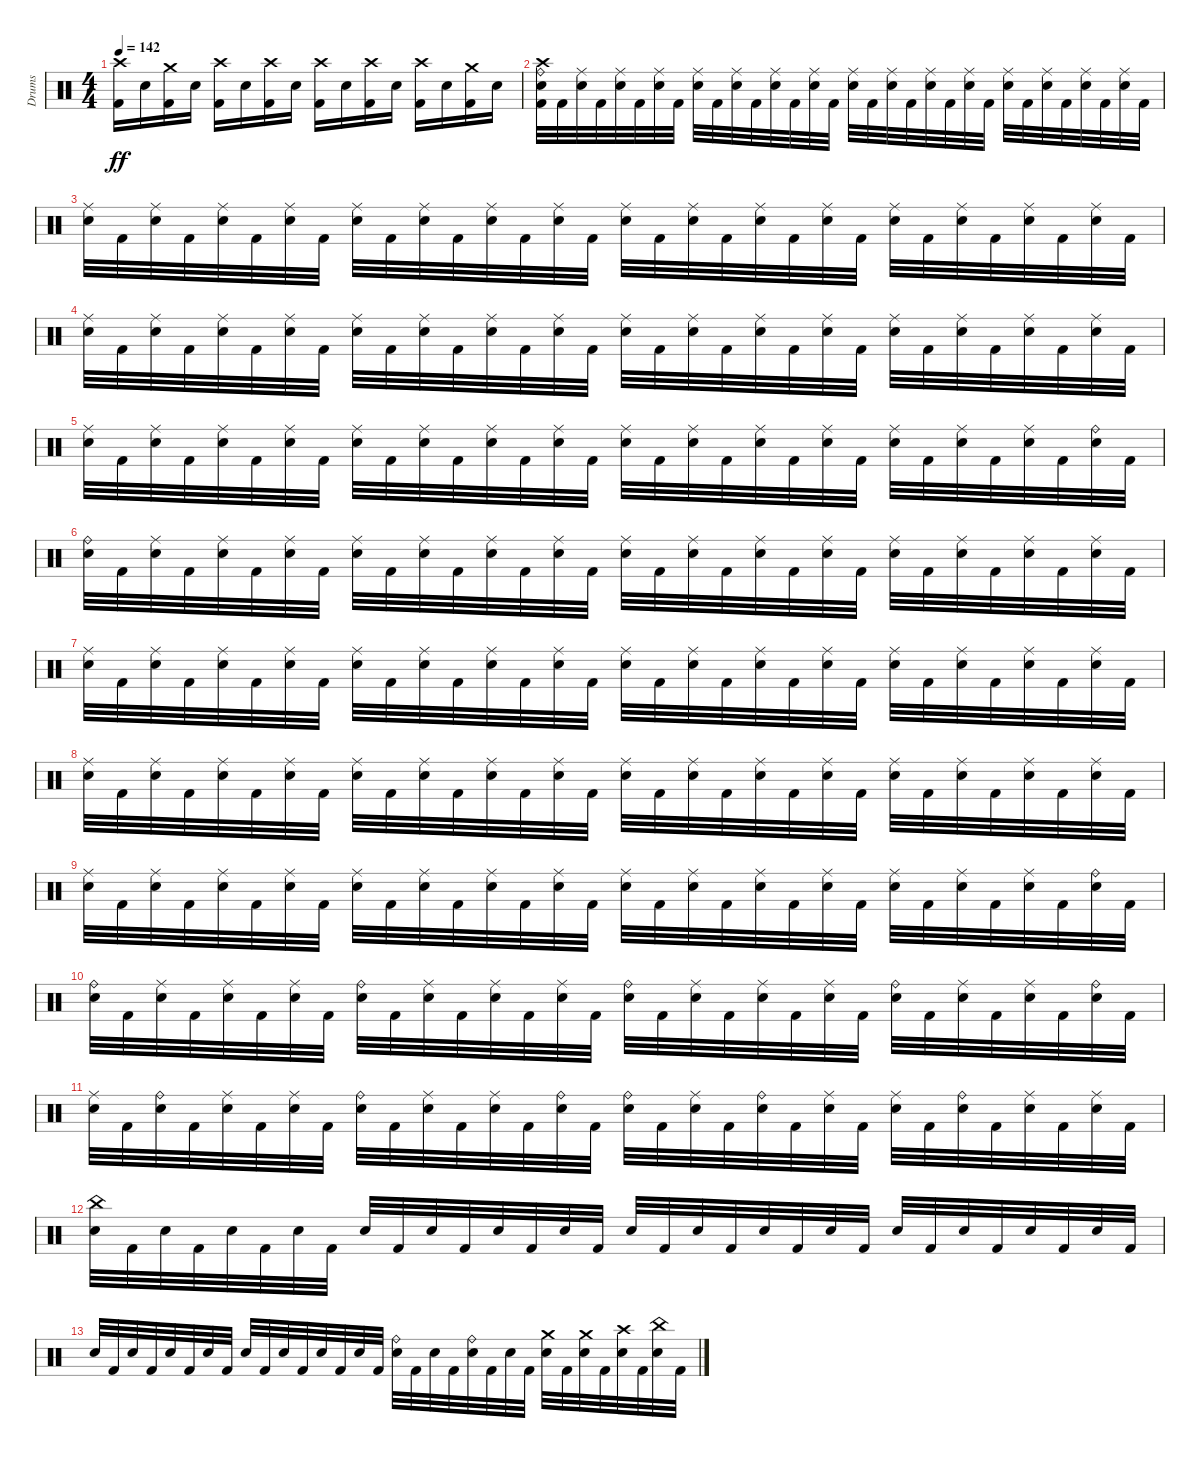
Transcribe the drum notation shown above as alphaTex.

\track ("Drums" "Drums") {instrument percussion}
\staff {score}
\articulation defaults
\ts (4 4)
\tempo 142
\clef neutral
\ks c
("Crash high (hit)" "Kick (hit) 2").16{dy ff} "Snare (hit) 2".16 ("Crash medium (hit)" "Kick (hit) 2").16 "Snare (hit) 2".16 ("Crash high (hit)" "Kick (hit) 2").16 "Snare (hit) 2".16 ("Crash high (hit)" "Kick (hit) 2").16 "Snare (hit) 2".16 ("Crash high (hit)" "Kick (hit) 2").16 "Snare (hit) 2".16 ("Crash high (hit)" "Kick (hit) 2").16 "Snare (hit) 2".16 ("Crash high (hit)" "Kick (hit) 2").16 "Snare (hit) 2".16 ("Crash medium (hit)" "Kick (hit) 2").16 "Snare (hit) 2".16 |
("Crash high (hit)" "Kick (hit) 2" "Snare (hit) 2" "Ride (bell)").32 "Kick (hit) 2".32 ("Snare (hit) 2" "Ride (middle)").32 "Kick (hit) 2".32 ("Snare (hit) 2" "Ride (middle)").32 "Kick (hit) 2".32 ("Snare (hit) 2" "Ride (middle)").32 "Kick (hit) 2".32 ("Snare (hit) 2" "Ride (middle)").32 "Kick (hit) 2".32 ("Snare (hit) 2" "Ride (middle)").32 "Kick (hit) 2".32 ("Snare (hit) 2" "Ride (middle)").32 "Kick (hit) 2".32 ("Snare (hit) 2" "Ride (middle)").32 "Kick (hit) 2".32 ("Snare (hit) 2" "Ride (middle)").32 "Kick (hit) 2".32 ("Snare (hit) 2" "Ride (middle)").32 "Kick (hit) 2".32 ("Snare (hit) 2" "Ride (middle)").32 "Kick (hit) 2".32 ("Snare (hit) 2" "Ride (middle)").32 "Kick (hit) 2".32 ("Snare (hit) 2" "Ride (middle)").32 "Kick (hit) 2".32 ("Snare (hit) 2" "Ride (middle)").32 "Kick (hit) 2".32 ("Snare (hit) 2" "Ride (middle)").32 "Kick (hit) 2".32 ("Snare (hit) 2" "Ride (middle)").32 "Kick (hit) 2".32 |
("Snare (hit) 2" "Ride (middle)").32 "Kick (hit) 2".32 ("Snare (hit) 2" "Ride (middle)").32 "Kick (hit) 2".32 ("Snare (hit) 2" "Ride (middle)").32 "Kick (hit) 2".32 ("Snare (hit) 2" "Ride (middle)").32 "Kick (hit) 2".32 ("Snare (hit) 2" "Ride (middle)").32 "Kick (hit) 2".32 ("Snare (hit) 2" "Ride (middle)").32 "Kick (hit) 2".32 ("Snare (hit) 2" "Ride (middle)").32 "Kick (hit) 2".32 ("Snare (hit) 2" "Ride (middle)").32 "Kick (hit) 2".32 ("Snare (hit) 2" "Ride (middle)").32 "Kick (hit) 2".32 ("Snare (hit) 2" "Ride (middle)").32 "Kick (hit) 2".32 ("Snare (hit) 2" "Ride (middle)").32 "Kick (hit) 2".32 ("Snare (hit) 2" "Ride (middle)").32 "Kick (hit) 2".32 ("Snare (hit) 2" "Ride (middle)").32 "Kick (hit) 2".32 ("Snare (hit) 2" "Ride (middle)").32 "Kick (hit) 2".32 ("Snare (hit) 2" "Ride (middle)").32 "Kick (hit) 2".32 ("Snare (hit) 2" "Ride (middle)").32 "Kick (hit) 2".32 |
("Snare (hit) 2" "Ride (middle)").32 "Kick (hit) 2".32 ("Snare (hit) 2" "Ride (middle)").32 "Kick (hit) 2".32 ("Snare (hit) 2" "Ride (middle)").32 "Kick (hit) 2".32 ("Snare (hit) 2" "Ride (middle)").32 "Kick (hit) 2".32 ("Snare (hit) 2" "Ride (middle)").32 "Kick (hit) 2".32 ("Snare (hit) 2" "Ride (middle)").32 "Kick (hit) 2".32 ("Snare (hit) 2" "Ride (middle)").32 "Kick (hit) 2".32 ("Snare (hit) 2" "Ride (middle)").32 "Kick (hit) 2".32 ("Snare (hit) 2" "Ride (middle)").32 "Kick (hit) 2".32 ("Snare (hit) 2" "Ride (middle)").32 "Kick (hit) 2".32 ("Snare (hit) 2" "Ride (middle)").32 "Kick (hit) 2".32 ("Snare (hit) 2" "Ride (middle)").32 "Kick (hit) 2".32 ("Snare (hit) 2" "Ride (middle)").32 "Kick (hit) 2".32 ("Snare (hit) 2" "Ride (middle)").32 "Kick (hit) 2".32 ("Snare (hit) 2" "Ride (middle)").32 "Kick (hit) 2".32 ("Snare (hit) 2" "Ride (middle)").32 "Kick (hit) 2".32 |
("Snare (hit) 2" "Ride (middle)").32 "Kick (hit) 2".32 ("Snare (hit) 2" "Ride (middle)").32 "Kick (hit) 2".32 ("Snare (hit) 2" "Ride (middle)").32 "Kick (hit) 2".32 ("Snare (hit) 2" "Ride (middle)").32 "Kick (hit) 2".32 ("Snare (hit) 2" "Ride (middle)").32 "Kick (hit) 2".32 ("Snare (hit) 2" "Ride (middle)").32 "Kick (hit) 2".32 ("Snare (hit) 2" "Ride (middle)").32 "Kick (hit) 2".32 ("Snare (hit) 2" "Ride (middle)").32 "Kick (hit) 2".32 ("Snare (hit) 2" "Ride (middle)").32 "Kick (hit) 2".32 ("Snare (hit) 2" "Ride (middle)").32 "Kick (hit) 2".32 ("Snare (hit) 2" "Ride (middle)").32 "Kick (hit) 2".32 ("Snare (hit) 2" "Ride (middle)").32 "Kick (hit) 2".32 ("Snare (hit) 2" "Ride (middle)").32 "Kick (hit) 2".32 ("Snare (hit) 2" "Ride (middle)").32 "Kick (hit) 2".32 ("Snare (hit) 2" "Ride (middle)").32 "Kick (hit) 2".32 ("Snare (hit) 2" "Ride (bell)").32 "Kick (hit) 2".32 |
("Snare (hit) 2" "Ride (bell)").32 "Kick (hit) 2".32 ("Snare (hit) 2" "Ride (middle)").32 "Kick (hit) 2".32 ("Snare (hit) 2" "Ride (middle)").32 "Kick (hit) 2".32 ("Snare (hit) 2" "Ride (middle)").32 "Kick (hit) 2".32 ("Snare (hit) 2" "Ride (middle)").32 "Kick (hit) 2".32 ("Snare (hit) 2" "Ride (middle)").32 "Kick (hit) 2".32 ("Snare (hit) 2" "Ride (middle)").32 "Kick (hit) 2".32 ("Snare (hit) 2" "Ride (middle)").32 "Kick (hit) 2".32 ("Snare (hit) 2" "Ride (middle)").32 "Kick (hit) 2".32 ("Snare (hit) 2" "Ride (middle)").32 "Kick (hit) 2".32 ("Snare (hit) 2" "Ride (middle)").32 "Kick (hit) 2".32 ("Snare (hit) 2" "Ride (middle)").32 "Kick (hit) 2".32 ("Snare (hit) 2" "Ride (middle)").32 "Kick (hit) 2".32 ("Snare (hit) 2" "Ride (middle)").32 "Kick (hit) 2".32 ("Snare (hit) 2" "Ride (middle)").32 "Kick (hit) 2".32 ("Snare (hit) 2" "Ride (middle)").32 "Kick (hit) 2".32 |
("Snare (hit) 2" "Ride (middle)").32 "Kick (hit) 2".32 ("Snare (hit) 2" "Ride (middle)").32 "Kick (hit) 2".32 ("Snare (hit) 2" "Ride (middle)").32 "Kick (hit) 2".32 ("Snare (hit) 2" "Ride (middle)").32 "Kick (hit) 2".32 ("Snare (hit) 2" "Ride (middle)").32 "Kick (hit) 2".32 ("Snare (hit) 2" "Ride (middle)").32 "Kick (hit) 2".32 ("Snare (hit) 2" "Ride (middle)").32 "Kick (hit) 2".32 ("Snare (hit) 2" "Ride (middle)").32 "Kick (hit) 2".32 ("Snare (hit) 2" "Ride (middle)").32 "Kick (hit) 2".32 ("Snare (hit) 2" "Ride (middle)").32 "Kick (hit) 2".32 ("Snare (hit) 2" "Ride (middle)").32 "Kick (hit) 2".32 ("Snare (hit) 2" "Ride (middle)").32 "Kick (hit) 2".32 ("Snare (hit) 2" "Ride (middle)").32 "Kick (hit) 2".32 ("Snare (hit) 2" "Ride (middle)").32 "Kick (hit) 2".32 ("Snare (hit) 2" "Ride (middle)").32 "Kick (hit) 2".32 ("Snare (hit) 2" "Ride (middle)").32 "Kick (hit) 2".32 |
("Snare (hit) 2" "Ride (middle)").32 "Kick (hit) 2".32 ("Snare (hit) 2" "Ride (middle)").32 "Kick (hit) 2".32 ("Snare (hit) 2" "Ride (middle)").32 "Kick (hit) 2".32 ("Snare (hit) 2" "Ride (middle)").32 "Kick (hit) 2".32 ("Snare (hit) 2" "Ride (middle)").32 "Kick (hit) 2".32 ("Snare (hit) 2" "Ride (middle)").32 "Kick (hit) 2".32 ("Snare (hit) 2" "Ride (middle)").32 "Kick (hit) 2".32 ("Snare (hit) 2" "Ride (middle)").32 "Kick (hit) 2".32 ("Snare (hit) 2" "Ride (middle)").32 "Kick (hit) 2".32 ("Snare (hit) 2" "Ride (middle)").32 "Kick (hit) 2".32 ("Snare (hit) 2" "Ride (middle)").32 "Kick (hit) 2".32 ("Snare (hit) 2" "Ride (middle)").32 "Kick (hit) 2".32 ("Snare (hit) 2" "Ride (middle)").32 "Kick (hit) 2".32 ("Snare (hit) 2" "Ride (middle)").32 "Kick (hit) 2".32 ("Snare (hit) 2" "Ride (middle)").32 "Kick (hit) 2".32 ("Snare (hit) 2" "Ride (middle)").32 "Kick (hit) 2".32 |
("Snare (hit) 2" "Ride (middle)").32 "Kick (hit) 2".32 ("Snare (hit) 2" "Ride (middle)").32 "Kick (hit) 2".32 ("Snare (hit) 2" "Ride (middle)").32 "Kick (hit) 2".32 ("Snare (hit) 2" "Ride (middle)").32 "Kick (hit) 2".32 ("Snare (hit) 2" "Ride (middle)").32 "Kick (hit) 2".32 ("Snare (hit) 2" "Ride (middle)").32 "Kick (hit) 2".32 ("Snare (hit) 2" "Ride (middle)").32 "Kick (hit) 2".32 ("Snare (hit) 2" "Ride (middle)").32 "Kick (hit) 2".32 ("Snare (hit) 2" "Ride (middle)").32 "Kick (hit) 2".32 ("Snare (hit) 2" "Ride (middle)").32 "Kick (hit) 2".32 ("Snare (hit) 2" "Ride (middle)").32 "Kick (hit) 2".32 ("Snare (hit) 2" "Ride (middle)").32 "Kick (hit) 2".32 ("Snare (hit) 2" "Ride (middle)").32 "Kick (hit) 2".32 ("Snare (hit) 2" "Ride (middle)").32 "Kick (hit) 2".32 ("Snare (hit) 2" "Ride (middle)").32 "Kick (hit) 2".32 ("Snare (hit) 2" "Ride (bell)").32 "Kick (hit) 2".32 |
("Snare (hit) 2" "Ride (bell)").32 "Kick (hit) 2".32 ("Snare (hit) 2" "Ride (middle)").32 "Kick (hit) 2".32 ("Snare (hit) 2" "Ride (middle)").32 "Kick (hit) 2".32 ("Snare (hit) 2" "Ride (middle)").32 "Kick (hit) 2".32 ("Snare (hit) 2" "Ride (bell)").32 "Kick (hit) 2".32 ("Snare (hit) 2" "Ride (middle)").32 "Kick (hit) 2".32 ("Snare (hit) 2" "Ride (middle)").32 "Kick (hit) 2".32 ("Snare (hit) 2" "Ride (middle)").32 "Kick (hit) 2".32 ("Snare (hit) 2" "Ride (bell)").32 "Kick (hit) 2".32 ("Snare (hit) 2" "Ride (middle)").32 "Kick (hit) 2".32 ("Snare (hit) 2" "Ride (middle)").32 "Kick (hit) 2".32 ("Snare (hit) 2" "Ride (middle)").32 "Kick (hit) 2".32 ("Snare (hit) 2" "Ride (bell)").32 "Kick (hit) 2".32 ("Snare (hit) 2" "Ride (middle)").32 "Kick (hit) 2".32 ("Snare (hit) 2" "Ride (middle)").32 "Kick (hit) 2".32 ("Snare (hit) 2" "Ride (bell)").32 "Kick (hit) 2".32 |
("Snare (hit) 2" "Ride (middle)").32 "Kick (hit) 2".32 ("Snare (hit) 2" "Ride (bell)").32 "Kick (hit) 2".32 ("Snare (hit) 2" "Ride (middle)").32 "Kick (hit) 2".32 ("Snare (hit) 2" "Ride (middle)").32 "Kick (hit) 2".32 ("Snare (hit) 2" "Ride (bell)").32 "Kick (hit) 2".32 ("Snare (hit) 2" "Ride (middle)").32 "Kick (hit) 2".32 ("Snare (hit) 2" "Ride (middle)").32 "Kick (hit) 2".32 ("Snare (hit) 2" "Ride (bell)").32 "Kick (hit) 2".32 ("Snare (hit) 2" "Ride (bell)").32 "Kick (hit) 2".32 ("Snare (hit) 2" "Ride (middle)").32 "Kick (hit) 2".32 ("Snare (hit) 2" "Ride (bell)").32 "Kick (hit) 2".32 ("Snare (hit) 2" "Ride (middle)").32 "Kick (hit) 2".32 ("Snare (hit) 2" "Ride (middle)").32 "Kick (hit) 2".32 ("Snare (hit) 2" "Ride (bell)").32 "Kick (hit) 2".32 ("Snare (hit) 2" "Ride (middle)").32 "Kick (hit) 2".32 ("Snare (hit) 2" "Ride (middle)").32 "Kick (hit) 2".32 |
("China (hit)" "Snare (hit) 2").32 "Kick (hit) 2".32 "Snare (hit) 2".32 "Kick (hit) 2".32 "Snare (hit) 2".32 "Kick (hit) 2".32 "Snare (hit) 2".32 "Kick (hit) 2".32 "Snare (hit) 2".32 "Kick (hit) 2".32 "Snare (hit) 2".32 "Kick (hit) 2".32 "Snare (hit) 2".32 "Kick (hit) 2".32 "Snare (hit) 2".32 "Kick (hit) 2".32 "Snare (hit) 2".32 "Kick (hit) 2".32 "Snare (hit) 2".32 "Kick (hit) 2".32 "Snare (hit) 2".32 "Kick (hit) 2".32 "Snare (hit) 2".32 "Kick (hit) 2".32 "Snare (hit) 2".32 "Kick (hit) 2".32 "Snare (hit) 2".32 "Kick (hit) 2".32 "Snare (hit) 2".32 "Kick (hit) 2".32 "Snare (hit) 2".32 "Kick (hit) 2".32 |
"Snare (hit) 2".32 "Kick (hit) 2".32 "Snare (hit) 2".32 "Kick (hit) 2".32 "Snare (hit) 2".32 "Kick (hit) 2".32 "Snare (hit) 2".32 "Kick (hit) 2".32 "Snare (hit) 2".32 "Kick (hit) 2".32 "Snare (hit) 2".32 "Kick (hit) 2".32 "Snare (hit) 2".32 "Kick (hit) 2".32 "Snare (hit) 2".32 "Kick (hit) 2".32 ("Snare (hit) 2" "Ride (bell)").32 "Kick (hit) 2".32 "Snare (hit) 2".32 "Kick (hit) 2".32 ("Snare (hit) 2" "Ride (bell)").32 "Kick (hit) 2".32 "Snare (hit) 2".32 "Kick (hit) 2".32 ("Crash medium (hit)" "Snare (hit) 2").32 "Kick (hit) 2".32 ("Crash medium (hit)" "Snare (hit) 2").32 "Kick (hit) 2".32 ("Crash high (hit)" "Snare (hit) 2").32 "Kick (hit) 2".32 ("China (hit)" "Snare (hit) 2").32 "Kick (hit) 2".32
